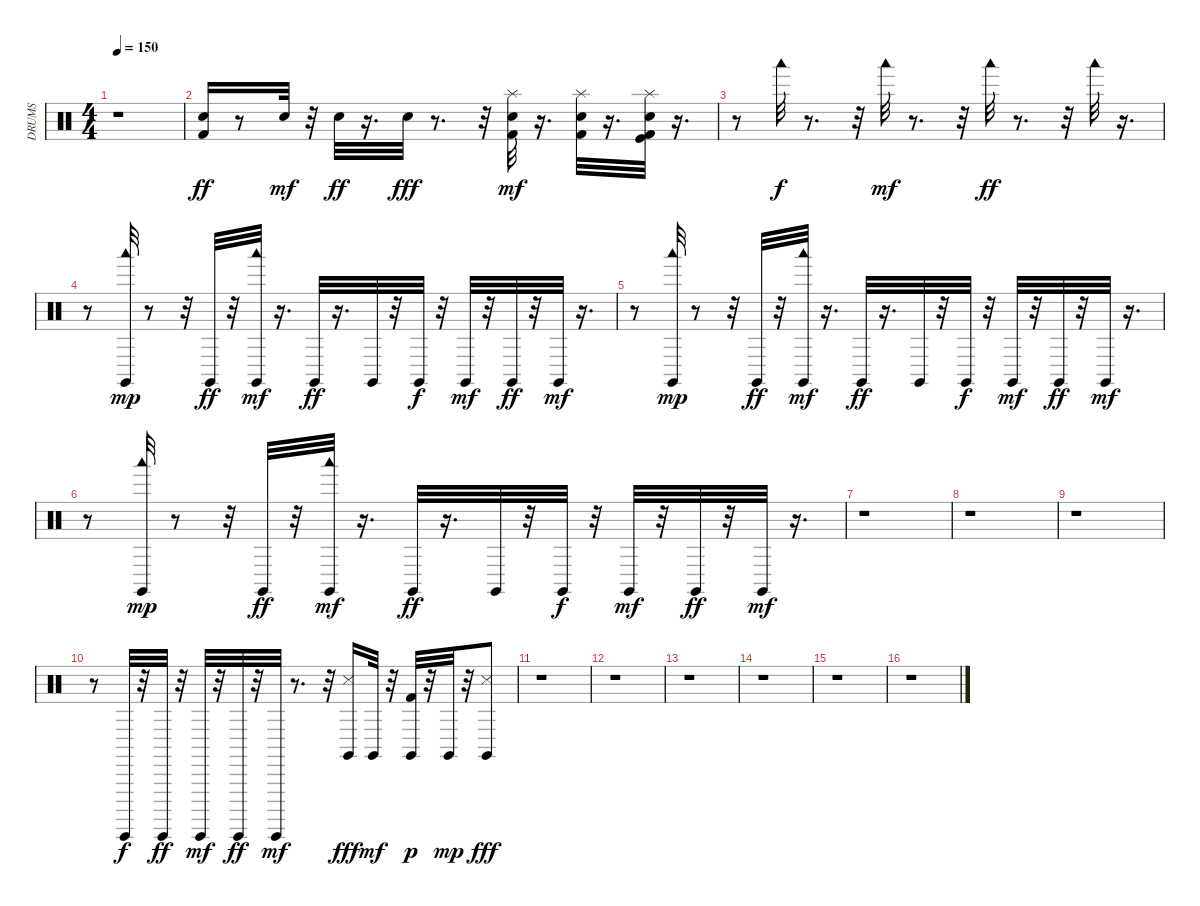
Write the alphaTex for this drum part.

\track ("DRUMS" "DRUMS") {instrument percussion}
\staff {score}
\articulation defaults
\ts (4 4)
\tempo 150
\clef neutral
\ks c
r.1{dy fff} |
("Electric Snare (hit)" "Kick (hit) 2").16{dy ff} r.8 "Electric Snare (hit)".32{dy mf} r.32 "Electric Snare (hit)".32{dy ff} r.16{d} "Electric Snare (hit)".32{dy fff} r.8{d} r.32 ("Electric Snare (hit)" "Kick (hit) 2" "Splash (hit)").32{dy mf} r.16{d} ("Electric Snare (hit)" "Kick (hit) 2" "Splash (hit)").32 r.16{d} ("Electric Snare (hit)" "Kick (hit)" "Kick (hit) 2" "Splash (hit)").32 r.16{d} |
r.8 "Woodblock low (hit)".32{dy f} r.8{d} r.32 "Woodblock low (hit)".32{dy mf} r.8{d} r.32 "Woodblock low (hit)".32{dy ff} r.8{d} r.32 "Woodblock low (hit)".32 r.16{d} |
r.8 ("Woodblock low (hit)" "Claves (hit)").32{dy mp} r.8 r.32 "Claves (hit)".32{dy ff} r.32 ("Woodblock low (hit)" "Claves (hit)").32{dy mf} r.16{d} "Claves (hit)".32{dy ff} r.16{d} "Claves (hit)".32 r.32 "Claves (hit)".32{dy f} r.32 "Claves (hit)".32{dy mf} r.32 "Claves (hit)".32{dy ff} r.32 "Claves (hit)".32{dy mf} r.16{d} |
r.8 ("Woodblock low (hit)" "Claves (hit)").32{dy mp} r.8 r.32 "Claves (hit)".32{dy ff} r.32 ("Woodblock low (hit)" "Claves (hit)").32{dy mf} r.16{d} "Claves (hit)".32{dy ff} r.16{d} "Claves (hit)".32 r.32 "Claves (hit)".32{dy f} r.32 "Claves (hit)".32{dy mf} r.32 "Claves (hit)".32{dy ff} r.32 "Claves (hit)".32{dy mf} r.16{d} |
r.8 ("Woodblock low (hit)" "Claves (hit)").32{dy mp} r.8 r.32 "Claves (hit)".32{dy ff} r.32 ("Woodblock low (hit)" "Claves (hit)").32{dy mf} r.16{d} "Claves (hit)".32{dy ff} r.16{d} "Claves (hit)".32 r.32 "Claves (hit)".32{dy f} r.32 "Claves (hit)".32{dy mf} r.32 "Claves (hit)".32{dy ff} r.32 "Claves (hit)".32{dy mf} r.16{d} |
r.1 |
r.1 |
r.1 |
r.8 "Guiro (hit)".32{dy f} r.32 "Guiro (hit)".32{dy ff} r.32 "Guiro (hit)".32{dy mf} r.32 "Guiro (hit)".32{dy ff} r.32 "Guiro (hit)".32{dy mf} r.8{d} r.32 ("Claves (hit)" "Metronome (hit)").16{dy fff} "Claves (hit)".32{dy mf} r.32 ("Claves (hit)" "Kick (hit) 2").32{dy p} r.32 "Claves (hit)".32{dy mp} r.32 ("Claves (hit)" "Metronome (hit)").8{dy fff} |
r.1 |
r.1 |
r.1 |
r.1 |
r.1 |
r.1
